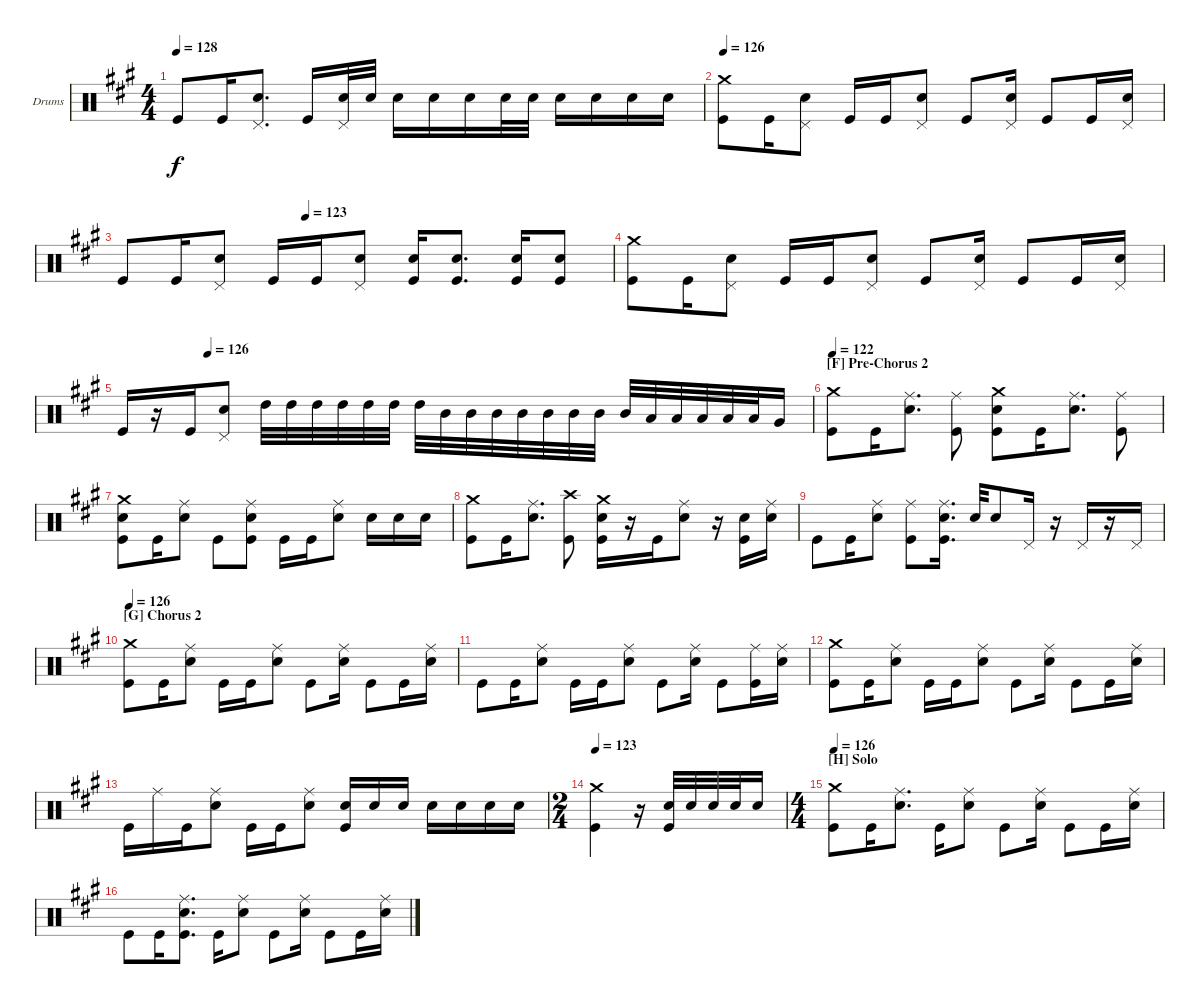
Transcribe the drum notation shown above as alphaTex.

\bracketExtendMode groupsimilarinstruments
\firstSystemTrackNameOrientation horizontal
\otherSystemsTrackNameOrientation horizontal
\track ("Vinny Appice" "Drums") {instrument percussion}
\staff {score}
\articulation defaults
\ts (4 4)
\tempo 128
\clef neutral
\ks f#minor "Kick (hit)".8{dy f} "Kick (hit)".16
("Snare (hit) 2" "Pedal Hi-Hat (hit)").8{d} "Kick (hit)".16 ("Snare (hit) 2" "Pedal Hi-Hat (hit)").32 "Snare (hit) 2".32 "Snare (hit) 2".16 "Snare (hit) 2".16 "Snare (hit) 2".16 "Snare (hit) 2".32 "Snare (hit) 2".32 "Snare (hit) 2".16 "Snare (hit) 2".16 "Snare (hit) 2".16 "Snare (hit) 2".16 |
\tempo 126
("Crash medium (hit)" "Kick (hit)").8 "Kick (hit)".16 ("Snare (hit) 2" "Pedal Hi-Hat (hit)").8 "Kick (hit)".16 "Kick (hit)".16 ("Snare (hit) 2" "Pedal Hi-Hat (hit)").8 "Kick (hit)".8 ("Snare (hit) 2" "Pedal Hi-Hat (hit)").16 "Kick (hit)".8 "Kick (hit)".16 ("Snare (hit) 2" "Pedal Hi-Hat (hit)").16 |
\tempo (123 0.375)
"Kick (hit)".8 "Kick (hit)".16 ("Snare (hit) 2" "Pedal Hi-Hat (hit)").8 "Kick (hit)".16 "Kick (hit)".16 ("Snare (hit) 2" "Pedal Hi-Hat (hit)").8 ("Kick (hit)" "Snare (hit) 2").16 ("Snare (hit) 2" "Kick (hit)").8{d} ("Snare (hit) 2" "Kick (hit)").16 ("Kick (hit)" "Snare (hit) 2").8 |
("Crash medium (hit)" "Kick (hit)").8 "Kick (hit)".16 ("Snare (hit) 2" "Pedal Hi-Hat (hit)").8 "Kick (hit)".16 "Kick (hit)".16 ("Snare (hit) 2" "Pedal Hi-Hat (hit)").8 "Kick (hit)".8 ("Snare (hit) 2" "Pedal Hi-Hat (hit)").16 "Kick (hit)".8 "Kick (hit)".16 ("Snare (hit) 2" "Pedal Hi-Hat (hit)").16 |
\tempo (126 0.125)
"Kick (hit)".16 r.16 "Kick (hit)".16 ("Pedal Hi-Hat (hit)" "Snare (hit) 2").8 "High Tom (hit)".32 "High Tom (hit)".32 "High Tom (hit)".32 "High Tom (hit)".32 "High Tom (hit)".32 "High Tom (hit)".32 "High Tom (hit)".32 "Mid Tom (hit)".32 "Mid Tom (hit)".32 "Mid Tom (hit)".32 "Mid Tom (hit)".32 "Mid Tom (hit)".32 "Mid Tom (hit)".32 "Mid Tom (hit)".32 "Mid Tom (hit)".32 "Low Tom (hit)".32 "Low Tom (hit)".32 "Low Tom (hit)".32 "Low Tom (hit)".32 "Low Tom (hit)".32 "Very Low Tom (hit)".16 |
\section ("F" "Pre-Chorus 2")
\tempo 122
("Crash medium (hit)" "Kick (hit)").8 "Kick (hit)".16 ("Ride (middle)" "Snare (hit) 2").8{d} ("Kick (hit)" "Ride (middle)").8 ("Kick (hit)" "Snare (hit) 2" "Crash medium (hit)").8 "Kick (hit)".16 ("Ride (middle)" "Snare (hit) 2").8{d} ("Kick (hit)" "Ride (middle)").8 |
("Crash medium (hit)" "Snare (hit) 2" "Kick (hit)").8 "Kick (hit)".16 ("Snare (hit) 2" "Ride (middle)").8 "Kick (hit)".8 ("Kick (hit)" "Ride (middle)" "Snare (hit) 2").8 "Kick (hit)".16 "Kick (hit)".16 ("Snare (hit) 2" "Ride (middle)").8 "Snare (hit) 2".16 "Snare (hit) 2".16 "Snare (hit) 2".16 |
("Crash medium (hit)" "Kick (hit)").8 "Kick (hit)".16 ("Ride (middle)" "Snare (hit) 2").8{d} ("Crash high (hit)" "Kick (hit)").8 ("Kick (hit)" "Crash medium (hit)" "Snare (hit) 2").16 r.16 "Kick (hit)".16 ("Ride (middle)" "Snare (hit) 2").8 r.16 ("Snare (hit) 2" "Kick (hit)").16 ("Snare (hit) 2" "Ride (middle)").16 |
"Kick (hit)".8 "Kick (hit)".16 ("Snare (hit) 2" "Ride (middle)").8 ("Ride (middle)" "Kick (hit)").8 ("Kick (hit)" "Snare (hit) 2" "Ride (middle)").16{d} "Snare (hit) 2".32 "Snare (hit) 2".8 "Pedal Hi-Hat (hit)".16 r.16 "Pedal Hi-Hat (hit)".16 r.16 "Pedal Hi-Hat (hit)".16 |
\section ("G" "Chorus 2")
\tempo 126
("Crash medium (hit)" "Kick (hit)").8 "Kick (hit)".16 ("Ride (middle)" "Snare (hit) 2").8 "Kick (hit)".16 "Kick (hit)".16 ("Ride (middle)" "Snare (hit) 2").8 "Kick (hit)".8 ("Ride (middle)" "Snare (hit) 2").16 "Kick (hit)".8 "Kick (hit)".16 ("Ride (middle)" "Snare (hit) 2").16 |
"Kick (hit)".8 "Kick (hit)".16 ("Ride (middle)" "Snare (hit) 2").8 "Kick (hit)".16 "Kick (hit)".16 ("Snare (hit) 2" "Ride (middle)").8 "Kick (hit)".8 ("Snare (hit) 2" "Ride (middle)").16 "Kick (hit)".8 ("Kick (hit)" "Ride (middle)").16 ("Ride (middle)" "Snare (hit) 2").16 |
("Crash medium (hit)" "Kick (hit)").8 "Kick (hit)".16 ("Ride (middle)" "Snare (hit) 2").8 "Kick (hit)".16 "Kick (hit)".16 ("Ride (middle)" "Snare (hit) 2").8 "Kick (hit)".8 ("Ride (middle)" "Snare (hit) 2").16 "Kick (hit)".8 "Kick (hit)".16 ("Ride (middle)" "Snare (hit) 2").16 |
"Kick (hit)".16 "Ride (middle)".16 "Kick (hit)".16 ("Ride (middle)" "Snare (hit) 2").8 "Kick (hit)".16 "Kick (hit)".16 ("Snare (hit) 2" "Ride (middle)").8 ("Kick (hit)" "Snare (hit) 2").16 "Snare (hit) 2".16 "Snare (hit) 2".16 "Snare (hit) 2".16 "Snare (hit) 2".16 "Snare (hit) 2".16 "Snare (hit) 2".16 |
\ts (2 4)
\tempo 123
("Crash medium (hit)" "Kick (hit)").4 r.16 ("Snare (hit) 2" "Kick (hit)").32 "Snare (hit) 2".32 "Snare (hit) 2".32 "Snare (hit) 2".32 "Snare (hit) 2".16 |
\ts (4 4)
\section ("H" "Solo")
\tempo 126
("Crash medium (hit)" "Kick (hit)").8 "Kick (hit)".16 ("Snare (hit) 2" "Ride (middle)").8{d} "Kick (hit)".16 ("Ride (middle)" "Snare (hit) 2").8 "Kick (hit)".8 ("Ride (middle)" "Snare (hit) 2").16 "Kick (hit)".8 "Kick (hit)".16 ("Ride (middle)" "Snare (hit) 2").16 |
"Kick (hit)".8 "Kick (hit)".16 ("Kick (hit)" "Snare (hit) 2" "Ride (middle)").8{d} "Kick (hit)".16 ("Snare (hit) 2" "Ride (middle)").8 "Kick (hit)".8 ("Snare (hit) 2" "Ride (middle)").16 "Kick (hit)".8 "Kick (hit)".16 ("Ride (middle)" "Snare (hit) 2").16
